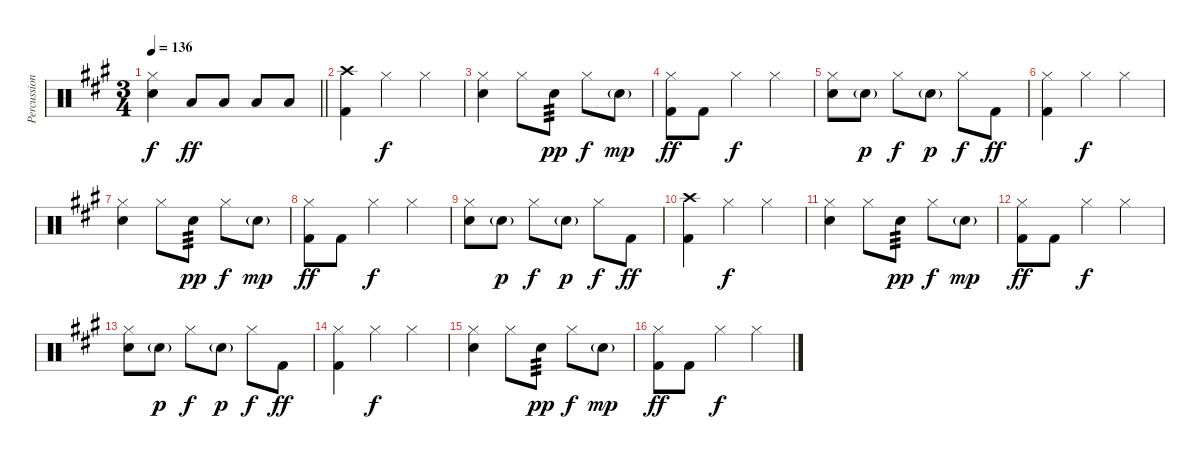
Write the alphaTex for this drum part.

\track ("Percussion" "Percussion") {solo instrument percussion}
\staff {score}
\articulation defaults
\ts (3 4)
\tempo 136
\clef neutral
\barLineRight lightlight
\ks a
("Hi-Hat (closed)" "Snare (hit) 2").4{dy f} "Low Tom (hit)".8{dy ff} "Low Tom (hit)".8 "Low Floor Tom (hit)".8 "Low Floor Tom (hit)".8 |
("Crash high (hit)" "Kick (hit) 2").4 "Hi-Hat (closed)".4{dy f} "Hi-Hat (closed)".4 |
("Hi-Hat (closed)" "Snare (hit) 2").4 "Hi-Hat (closed)".8 "Snare (hit) 2".8{tp 3 dy pp} "Hi-Hat (closed)".8{dy f} "Snare (hit) 2"{g}.8{dy mp} |
("Hi-Hat (closed)" "Kick (hit) 2").8{dy ff} "Kick (hit) 2".8 "Hi-Hat (closed)".4{dy f} "Hi-Hat (closed)".4 |
("Hi-Hat (closed)" "Snare (hit) 2").8 "Snare (hit) 2"{g}.8{dy p} "Hi-Hat (closed)".8{dy f} "Snare (hit) 2"{g}.8{dy p} "Hi-Hat (closed)".8{dy f} "Kick (hit) 2".8{dy ff} |
("Hi-Hat (closed)" "Kick (hit) 2").4 "Hi-Hat (closed)".4{dy f} "Hi-Hat (closed)".4 |
("Hi-Hat (closed)" "Snare (hit) 2").4 "Hi-Hat (closed)".8 "Snare (hit) 2".8{tp 3 dy pp} "Hi-Hat (closed)".8{dy f} "Snare (hit) 2"{g}.8{dy mp} |
("Hi-Hat (closed)" "Kick (hit) 2").8{dy ff} "Kick (hit) 2".8 "Hi-Hat (closed)".4{dy f} "Hi-Hat (closed)".4 |
("Hi-Hat (closed)" "Snare (hit) 2").8 "Snare (hit) 2"{g}.8{dy p} "Hi-Hat (closed)".8{dy f} "Snare (hit) 2"{g}.8{dy p} "Hi-Hat (closed)".8{dy f} "Kick (hit) 2".8{dy ff} |
("Crash high (hit)" "Kick (hit) 2").4 "Hi-Hat (closed)".4{dy f} "Hi-Hat (closed)".4 |
("Hi-Hat (closed)" "Snare (hit) 2").4 "Hi-Hat (closed)".8 "Snare (hit) 2".8{tp 3 dy pp} "Hi-Hat (closed)".8{dy f} "Snare (hit) 2"{g}.8{dy mp} |
("Hi-Hat (closed)" "Kick (hit) 2").8{dy ff} "Kick (hit) 2".8 "Hi-Hat (closed)".4{dy f} "Hi-Hat (closed)".4 |
("Hi-Hat (closed)" "Snare (hit) 2").8 "Snare (hit) 2"{g}.8{dy p} "Hi-Hat (closed)".8{dy f} "Snare (hit) 2"{g}.8{dy p} "Hi-Hat (closed)".8{dy f} "Kick (hit) 2".8{dy ff} |
("Hi-Hat (closed)" "Kick (hit) 2").4 "Hi-Hat (closed)".4{dy f} "Hi-Hat (closed)".4 |
("Hi-Hat (closed)" "Snare (hit) 2").4 "Hi-Hat (closed)".8 "Snare (hit) 2".8{tp 3 dy pp} "Hi-Hat (closed)".8{dy f} "Snare (hit) 2"{g}.8{dy mp} |
("Hi-Hat (closed)" "Kick (hit) 2").8{dy ff} "Kick (hit) 2".8 "Hi-Hat (closed)".4{dy f} "Hi-Hat (closed)".4
